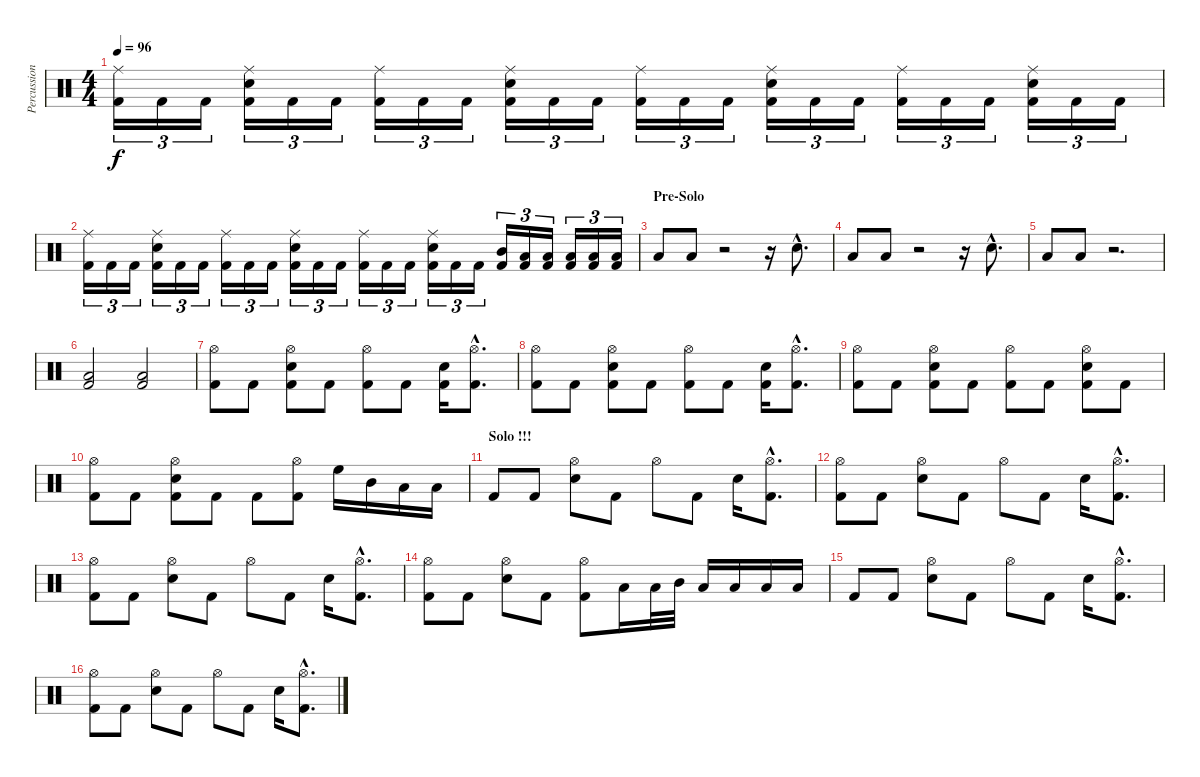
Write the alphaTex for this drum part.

\track ("Percussion" "Percussion") {instrument percussion}
\staff {score}
\articulation defaults
\ts (4 4)
\tempo 96
\clef neutral
\ks c
("Ride (middle)" "Kick (hit) 2").16{tu (3 2) dy f} "Kick (hit) 2".16{tu (3 2)} "Kick (hit) 2".16{tu (3 2)} ("Ride (middle)" "Snare (hit) 2" "Kick (hit) 2").16{tu (3 2)} "Kick (hit) 2".16{tu (3 2)} "Kick (hit) 2".16{tu (3 2)} ("Ride (middle)" "Kick (hit) 2").16{tu (3 2)} "Kick (hit) 2".16{tu (3 2)} "Kick (hit) 2".16{tu (3 2)} ("Ride (middle)" "Snare (hit) 2" "Kick (hit) 2").16{tu (3 2)} "Kick (hit) 2".16{tu (3 2)} "Kick (hit) 2".16{tu (3 2)} ("Ride (middle)" "Kick (hit) 2").16{tu (3 2)} "Kick (hit) 2".16{tu (3 2)} "Kick (hit) 2".16{tu (3 2)} ("Ride (middle)" "Snare (hit) 2" "Kick (hit) 2").16{tu (3 2)} "Kick (hit) 2".16{tu (3 2)} "Kick (hit) 2".16{tu (3 2)} ("Ride (middle)" "Kick (hit) 2").16{tu (3 2)} "Kick (hit) 2".16{tu (3 2)} "Kick (hit) 2".16{tu (3 2)} ("Ride (middle)" "Snare (hit) 2" "Kick (hit) 2").16{tu (3 2)} "Kick (hit) 2".16{tu (3 2)} "Kick (hit) 2".16{tu (3 2)} |
("Ride (middle)" "Kick (hit) 2").16{tu (3 2)} "Kick (hit) 2".16{tu (3 2)} "Kick (hit) 2".16{tu (3 2)} ("Ride (middle)" "Snare (hit) 2" "Kick (hit) 2").16{tu (3 2)} "Kick (hit) 2".16{tu (3 2)} "Kick (hit) 2".16{tu (3 2)} ("Ride (middle)" "Kick (hit) 2").16{tu (3 2)} "Kick (hit) 2".16{tu (3 2)} "Kick (hit) 2".16{tu (3 2)} ("Ride (middle)" "Snare (hit) 2" "Kick (hit) 2").16{tu (3 2)} "Kick (hit) 2".16{tu (3 2)} "Kick (hit) 2".16{tu (3 2)} ("Ride (middle)" "Kick (hit) 2").16{tu (3 2)} "Kick (hit) 2".16{tu (3 2)} "Kick (hit) 2".16{tu (3 2)} ("Ride (middle)" "Snare (hit) 2" "Kick (hit) 2").16{tu (3 2)} "Kick (hit) 2".16{tu (3 2)} "Kick (hit) 2".16{tu (3 2)} ("Mid Tom (hit)" "Kick (hit) 2").16{tu (3 2)} ("Low Tom (hit)" "Kick (hit) 2").16{tu (3 2)} ("Low Floor Tom (hit)" "Kick (hit) 2").16{tu (3 2)} ("Low Floor Tom (hit)" "Kick (hit) 2").16{tu (3 2)} ("Low Tom (hit)" "Kick (hit) 2").16{tu (3 2)} ("Low Floor Tom (hit)" "Kick (hit) 2").16{tu (3 2)} |
\section ("" "Pre-Solo")
"Low Tom (hit)".8 "Low Tom (hit)".8 r.2 r.16 "Snare (hit) 2"{hac}.8{d} |
"Low Tom (hit)".8 "Low Tom (hit)".8 r.2 r.16 "Snare (hit) 2"{hac}.8{d} |
"Low Tom (hit)".8 "Low Tom (hit)".8 r.2{d} |
("Low Tom (hit)" "Kick (hit) 2").2 ("Low Tom (hit)" "Kick (hit) 2").2 |
("Hi-Hat (open)" "Kick (hit) 2").8 "Kick (hit) 2".8 ("Hi-Hat (open)" "Snare (hit) 2" "Kick (hit) 2").8 "Kick (hit) 2".8 ("Hi-Hat (open)" "Kick (hit) 2").8 "Kick (hit) 2".8 ("Snare (hit) 2" "Kick (hit) 2").16 ("Hi-Hat (open)"{hac} "Kick (hit) 2"{hac}).8{d} |
("Hi-Hat (open)" "Kick (hit) 2").8 "Kick (hit) 2".8 ("Hi-Hat (open)" "Snare (hit) 2" "Kick (hit) 2").8 "Kick (hit) 2".8 ("Hi-Hat (open)" "Kick (hit) 2").8 "Kick (hit) 2".8 ("Snare (hit) 2" "Kick (hit) 2").16 ("Hi-Hat (open)"{hac} "Kick (hit) 2"{hac}).8{d} |
("Hi-Hat (open)" "Kick (hit) 2").8 "Kick (hit) 2".8 ("Hi-Hat (open)" "Snare (hit) 2" "Kick (hit) 2").8 "Kick (hit) 2".8 ("Hi-Hat (open)" "Kick (hit) 2").8 "Kick (hit) 2".8 ("Hi-Hat (open)" "Snare (hit) 2" "Kick (hit) 2").8 "Kick (hit) 2".8 |
("Hi-Hat (open)" "Kick (hit) 2").8 "Kick (hit) 2".8 ("Hi-Hat (open)" "Snare (hit) 2" "Kick (hit) 2").8 "Kick (hit) 2".8 "Kick (hit) 2".8 ("Hi-Hat (open)" "Kick (hit) 2").8 "High Floor Tom (hit)".16 "Mid Tom (hit)".16 "Low Tom (hit)".16 "Low Floor Tom (hit)".16 |
\section ("" "Solo !!!")
"Kick (hit) 2".8 "Kick (hit) 2".8 ("Hi-Hat (open)" "Snare (hit) 2").8 "Kick (hit) 2".8 "Hi-Hat (open)".8 "Kick (hit) 2".8 "Snare (hit) 2".16 ("Hi-Hat (open)"{hac} "Kick (hit) 2"{hac}).8{d} |
("Hi-Hat (open)" "Kick (hit) 2").8 "Kick (hit) 2".8 ("Hi-Hat (open)" "Snare (hit) 2").8 "Kick (hit) 2".8 "Hi-Hat (open)".8 "Kick (hit) 2".8 "Snare (hit) 2".16 ("Hi-Hat (open)"{hac} "Kick (hit) 2"{hac}).8{d} |
("Hi-Hat (open)" "Kick (hit) 2").8 "Kick (hit) 2".8 ("Hi-Hat (open)" "Snare (hit) 2").8 "Kick (hit) 2".8 "Hi-Hat (open)".8 "Kick (hit) 2".8 "Snare (hit) 2".16 ("Hi-Hat (open)"{hac} "Kick (hit) 2"{hac}).8{d} |
("Hi-Hat (open)" "Kick (hit) 2").8 "Kick (hit) 2".8 ("Hi-Hat (open)" "Snare (hit) 2").8 "Kick (hit) 2".8 ("Hi-Hat (open)" "Kick (hit) 2").8 "Low Tom (hit)".16 "Low Tom (hit)".32 "Mid Tom (hit)".32 "Low Floor Tom (hit)".16 "Low Tom (hit)".16 "Low Tom (hit)".16 "Low Floor Tom (hit)".16 |
"Kick (hit) 2".8 "Kick (hit) 2".8 ("Hi-Hat (open)" "Snare (hit) 2").8 "Kick (hit) 2".8 "Hi-Hat (open)".8 "Kick (hit) 2".8 "Snare (hit) 2".16 ("Hi-Hat (open)"{hac} "Kick (hit) 2"{hac}).8{d} |
("Hi-Hat (open)" "Kick (hit) 2").8 "Kick (hit) 2".8 ("Hi-Hat (open)" "Snare (hit) 2").8 "Kick (hit) 2".8 "Hi-Hat (open)".8 "Kick (hit) 2".8 "Snare (hit) 2".16 ("Hi-Hat (open)"{hac} "Kick (hit) 2"{hac}).8{d}
